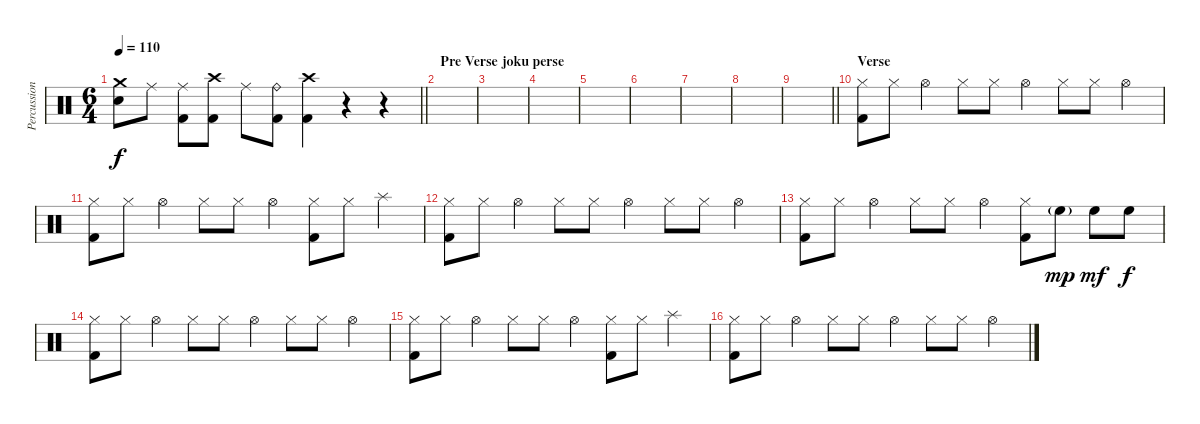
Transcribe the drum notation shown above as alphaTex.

\track ("Percussion" "Percussion") {instrument percussion}
\staff {score}
\articulation defaults
\ts (6 4)
\tempo 110
\clef neutral
\barLineRight lightlight
\ks c
("Crash medium (hit)" "Electric Snare (hit)").8{dy f} "Ride (middle)".8 ("Ride (middle)" "Kick (hit) 2").8 ("Crash high (hit)" "Kick (hit) 2").8 "Ride (middle)".8 ("Ride (bell)" "Kick (hit) 2").8 ("Crash high (hit)" "Kick (hit) 2").4 r.4 r.4 |
\section ("" "Pre Verse joku perse")
|
|
|
|
|
|
|
\barLineRight lightlight
|
\section ("" "Verse ")
("Hi-Hat (closed)" "Kick (hit) 2").8 "Hi-Hat (closed)".8 "Hi-Hat (open)".4 "Hi-Hat (closed)".8 "Hi-Hat (closed)".8 "Hi-Hat (open)".4 "Hi-Hat (closed)".8 "Hi-Hat (closed)".8 "Hi-Hat (open)".4 |
("Hi-Hat (closed)" "Kick (hit) 2").8 "Hi-Hat (closed)".8 "Hi-Hat (open)".4 "Hi-Hat (closed)".8 "Hi-Hat (closed)".8 "Hi-Hat (open)".4 ("Hi-Hat (closed)" "Kick (hit) 2").8 "Hi-Hat (closed)".8 "Splash (hit)".4 |
("Hi-Hat (closed)" "Kick (hit) 2").8 "Hi-Hat (closed)".8 "Hi-Hat (open)".4 "Hi-Hat (closed)".8 "Hi-Hat (closed)".8 "Hi-Hat (open)".4 "Hi-Hat (closed)".8 "Hi-Hat (closed)".8 "Hi-Hat (open)".4 |
("Hi-Hat (closed)" "Kick (hit) 2").8 "Hi-Hat (closed)".8 "Hi-Hat (open)".4 "Hi-Hat (closed)".8 "Hi-Hat (closed)".8 "Hi-Hat (open)".4 ("Hi-Hat (closed)" "Kick (hit) 2").8 "High Floor Tom (hit)"{g}.8{dy mp} "High Floor Tom (hit)".8{dy mf} "High Floor Tom (hit)".8{dy f} |
("Hi-Hat (closed)" "Kick (hit) 2").8 "Hi-Hat (closed)".8 "Hi-Hat (open)".4 "Hi-Hat (closed)".8 "Hi-Hat (closed)".8 "Hi-Hat (open)".4 "Hi-Hat (closed)".8 "Hi-Hat (closed)".8 "Hi-Hat (open)".4 |
("Hi-Hat (closed)" "Kick (hit) 2").8 "Hi-Hat (closed)".8 "Hi-Hat (open)".4 "Hi-Hat (closed)".8 "Hi-Hat (closed)".8 "Hi-Hat (open)".4 ("Hi-Hat (closed)" "Kick (hit) 2").8 "Hi-Hat (closed)".8 "Splash (hit)".4 |
("Hi-Hat (closed)" "Kick (hit) 2").8 "Hi-Hat (closed)".8 "Hi-Hat (open)".4 "Hi-Hat (closed)".8 "Hi-Hat (closed)".8 "Hi-Hat (open)".4 "Hi-Hat (closed)".8 "Hi-Hat (closed)".8 "Hi-Hat (open)".4
